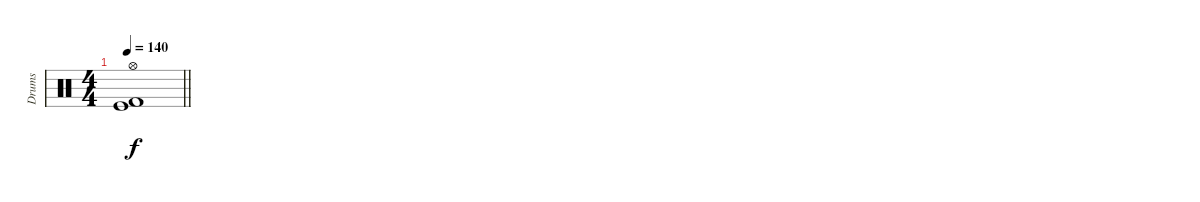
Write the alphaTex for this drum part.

\track ("Drums" "Drums") {instrument percussion}
\staff {score}
\articulation defaults
\ts (4 4)
\tempo 140
\clef neutral
\barLineRight lightlight
\ks c
("Hi-Hat (open)" "Kick (hit) 2" "Kick (hit)").1{dy f}
